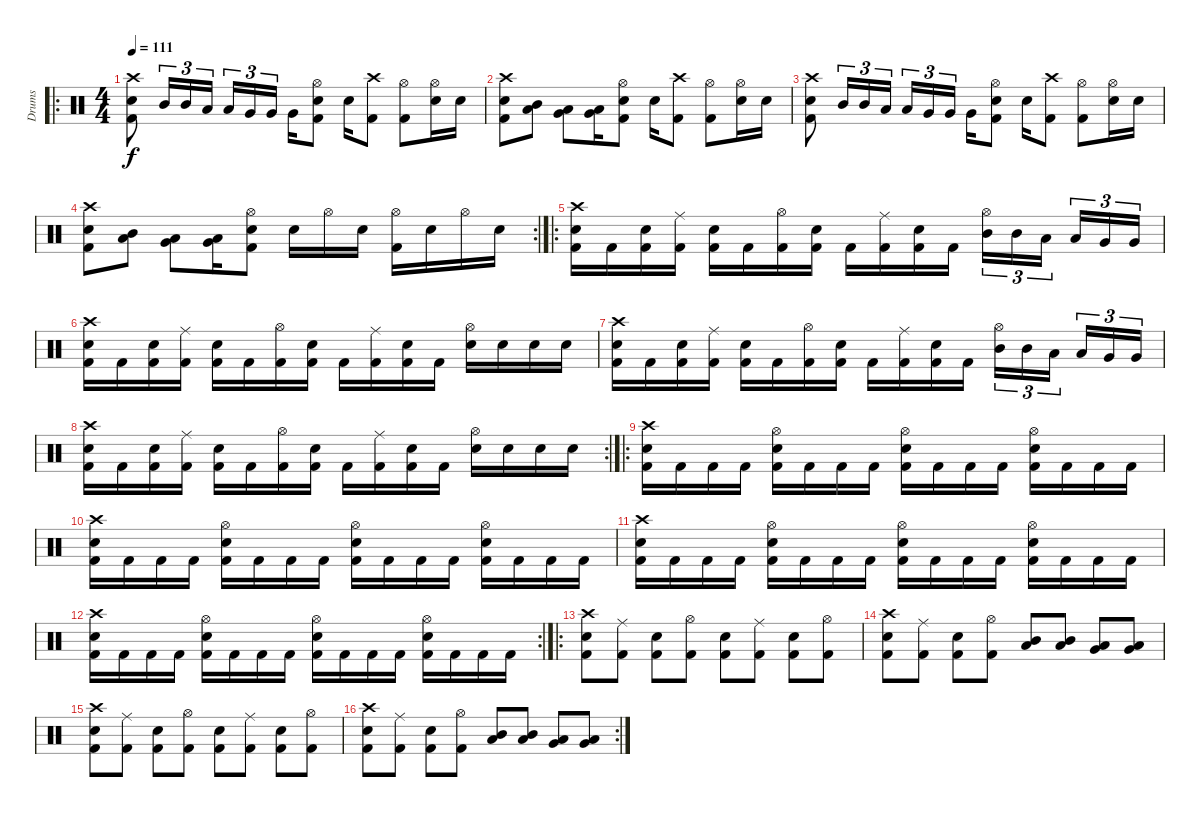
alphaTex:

\track ("Drums" "Drums") {instrument percussion}
\staff {score}
\articulation defaults
\ro
\ts (4 4)
\tempo 111
\clef neutral
\ks c
("Crash high (hit)" "Electric Snare (hit)" "Kick (hit) 2").8{dy f} "Mid Tom (hit)".16{tu (3 2)} "Mid Tom (hit)".16{tu (3 2)} "Low Tom (hit)".16{tu (3 2)} "Low Tom (hit)".16{tu (3 2)} "Very Low Tom (hit)".16{tu (3 2)} "Very Low Tom (hit)".16{tu (3 2)} "Very Low Tom (hit)".16 ("Hi-Hat (open)" "Electric Snare (hit)" "Kick (hit) 2").8 "Electric Snare (hit)".16 ("Crash high (hit)" "Kick (hit) 2").8 ("Hi-Hat (open)" "Kick (hit) 2").8 ("Hi-Hat (open)" "Electric Snare (hit)").16 "Electric Snare (hit)".16 |
("Crash high (hit)" "Electric Snare (hit)" "Kick (hit) 2").8 ("Low Tom (hit)" "Mid Tom (hit)").8 ("Very Low Tom (hit)" "Low Tom (hit)").8 ("Very Low Tom (hit)" "Low Floor Tom (hit)").16 ("Hi-Hat (open)" "Electric Snare (hit)" "Kick (hit) 2").8 "Electric Snare (hit)".16 ("Crash high (hit)" "Kick (hit) 2").8 ("Hi-Hat (open)" "Kick (hit) 2").8 ("Hi-Hat (open)" "Electric Snare (hit)").16 "Electric Snare (hit)".16 |
("Crash high (hit)" "Electric Snare (hit)" "Kick (hit) 2").8 "Mid Tom (hit)".16{tu (3 2)} "Mid Tom (hit)".16{tu (3 2)} "Low Tom (hit)".16{tu (3 2)} "Low Tom (hit)".16{tu (3 2)} "Very Low Tom (hit)".16{tu (3 2)} "Very Low Tom (hit)".16{tu (3 2)} "Very Low Tom (hit)".16 ("Hi-Hat (open)" "Electric Snare (hit)" "Kick (hit) 2").8 "Electric Snare (hit)".16 ("Crash high (hit)" "Kick (hit) 2").8 ("Hi-Hat (open)" "Kick (hit) 2").8 ("Hi-Hat (open)" "Electric Snare (hit)").16 "Electric Snare (hit)".16 |
\rc 2
("Crash high (hit)" "Electric Snare (hit)" "Kick (hit) 2").8 ("Low Tom (hit)" "Mid Tom (hit)").8 ("Very Low Tom (hit)" "Low Tom (hit)").8 ("Very Low Tom (hit)" "Low Floor Tom (hit)").16 ("Hi-Hat (open)" "Electric Snare (hit)" "Kick (hit) 2").8 "Electric Snare (hit)".16 "Hi-Hat (open)".16 "Electric Snare (hit)".16 ("Hi-Hat (open)" "Kick (hit) 2").16 "Electric Snare (hit)".16 "Hi-Hat (open)".16 "Electric Snare (hit)".16 |
\ro
("Crash high (hit)" "Electric Snare (hit)" "Kick (hit) 2").16 "Kick (hit) 2".16 ("Electric Snare (hit)" "Kick (hit) 2").16 ("Ride (middle)" "Kick (hit) 2").16 ("Electric Snare (hit)" "Kick (hit) 2").16 "Kick (hit) 2".16 ("Hi-Hat (open)" "Kick (hit) 2").16 ("Electric Snare (hit)" "Kick (hit) 2").16 "Kick (hit) 2".16 ("Ride (middle)" "Kick (hit) 2").16 ("Electric Snare (hit)" "Kick (hit) 2").16 "Kick (hit) 2".16 ("Hi-Hat (open)" "Mid Tom (hit)").16{tu (3 2)} "Mid Tom (hit)".16{tu (3 2)} "Low Tom (hit)".16{tu (3 2)} "Low Tom (hit)".16{tu (3 2)} "Very Low Tom (hit)".16{tu (3 2)} "Very Low Tom (hit)".16{tu (3 2)} |
("Crash high (hit)" "Electric Snare (hit)" "Kick (hit) 2").16 "Kick (hit) 2".16 ("Electric Snare (hit)" "Kick (hit) 2").16 ("Ride (middle)" "Kick (hit) 2").16 ("Electric Snare (hit)" "Kick (hit) 2").16 "Kick (hit) 2".16 ("Hi-Hat (open)" "Kick (hit) 2").16 ("Electric Snare (hit)" "Kick (hit) 2").16 "Kick (hit) 2".16 ("Ride (middle)" "Kick (hit) 2").16 ("Electric Snare (hit)" "Kick (hit) 2").16 "Kick (hit) 2".16 ("Hi-Hat (open)" "Electric Snare (hit)").16 "Electric Snare (hit)".16 "Electric Snare (hit)".16 "Electric Snare (hit)".16 |
("Crash high (hit)" "Electric Snare (hit)" "Kick (hit) 2").16 "Kick (hit) 2".16 ("Electric Snare (hit)" "Kick (hit) 2").16 ("Ride (middle)" "Kick (hit) 2").16 ("Electric Snare (hit)" "Kick (hit) 2").16 "Kick (hit) 2".16 ("Hi-Hat (open)" "Kick (hit) 2").16 ("Electric Snare (hit)" "Kick (hit) 2").16 "Kick (hit) 2".16 ("Ride (middle)" "Kick (hit) 2").16 ("Electric Snare (hit)" "Kick (hit) 2").16 "Kick (hit) 2".16 ("Hi-Hat (open)" "Mid Tom (hit)").16{tu (3 2)} "Mid Tom (hit)".16{tu (3 2)} "Low Tom (hit)".16{tu (3 2)} "Low Tom (hit)".16{tu (3 2)} "Very Low Tom (hit)".16{tu (3 2)} "Very Low Tom (hit)".16{tu (3 2)} |
\rc 2
("Crash high (hit)" "Electric Snare (hit)" "Kick (hit) 2").16 "Kick (hit) 2".16 ("Electric Snare (hit)" "Kick (hit) 2").16 ("Ride (middle)" "Kick (hit) 2").16 ("Electric Snare (hit)" "Kick (hit) 2").16 "Kick (hit) 2".16 ("Hi-Hat (open)" "Kick (hit) 2").16 ("Electric Snare (hit)" "Kick (hit) 2").16 "Kick (hit) 2".16 ("Ride (middle)" "Kick (hit) 2").16 ("Electric Snare (hit)" "Kick (hit) 2").16 "Kick (hit) 2".16 ("Hi-Hat (open)" "Electric Snare (hit)").16 "Electric Snare (hit)".16 "Electric Snare (hit)".16 "Electric Snare (hit)".16 |
\ro
("Crash high (hit)" "Electric Snare (hit)" "Kick (hit) 2").16 "Kick (hit) 2".16 "Kick (hit) 2".16 "Kick (hit) 2".16 ("Hi-Hat (open)" "Electric Snare (hit)" "Kick (hit) 2").16 "Kick (hit) 2".16 "Kick (hit) 2".16 "Kick (hit) 2".16 ("Hi-Hat (open)" "Electric Snare (hit)" "Kick (hit) 2").16 "Kick (hit) 2".16 "Kick (hit) 2".16 "Kick (hit) 2".16 ("Hi-Hat (open)" "Electric Snare (hit)" "Kick (hit) 2").16 "Kick (hit) 2".16 "Kick (hit) 2".16 "Kick (hit) 2".16 |
("Crash high (hit)" "Electric Snare (hit)" "Kick (hit) 2").16 "Kick (hit) 2".16 "Kick (hit) 2".16 "Kick (hit) 2".16 ("Hi-Hat (open)" "Electric Snare (hit)" "Kick (hit) 2").16 "Kick (hit) 2".16 "Kick (hit) 2".16 "Kick (hit) 2".16 ("Hi-Hat (open)" "Electric Snare (hit)" "Kick (hit) 2").16 "Kick (hit) 2".16 "Kick (hit) 2".16 "Kick (hit) 2".16 ("Hi-Hat (open)" "Electric Snare (hit)" "Kick (hit) 2").16 "Kick (hit) 2".16 "Kick (hit) 2".16 "Kick (hit) 2".16 |
("Crash high (hit)" "Electric Snare (hit)" "Kick (hit) 2").16 "Kick (hit) 2".16 "Kick (hit) 2".16 "Kick (hit) 2".16 ("Hi-Hat (open)" "Electric Snare (hit)" "Kick (hit) 2").16 "Kick (hit) 2".16 "Kick (hit) 2".16 "Kick (hit) 2".16 ("Hi-Hat (open)" "Electric Snare (hit)" "Kick (hit) 2").16 "Kick (hit) 2".16 "Kick (hit) 2".16 "Kick (hit) 2".16 ("Hi-Hat (open)" "Electric Snare (hit)" "Kick (hit) 2").16 "Kick (hit) 2".16 "Kick (hit) 2".16 "Kick (hit) 2".16 |
\rc 2
("Crash high (hit)" "Electric Snare (hit)" "Kick (hit) 2").16 "Kick (hit) 2".16 "Kick (hit) 2".16 "Kick (hit) 2".16 ("Hi-Hat (open)" "Electric Snare (hit)" "Kick (hit) 2").16 "Kick (hit) 2".16 "Kick (hit) 2".16 "Kick (hit) 2".16 ("Hi-Hat (open)" "Electric Snare (hit)" "Kick (hit) 2").16 "Kick (hit) 2".16 "Kick (hit) 2".16 "Kick (hit) 2".16 ("Hi-Hat (open)" "Electric Snare (hit)" "Kick (hit) 2").16 "Kick (hit) 2".16 "Kick (hit) 2".16 "Kick (hit) 2".16 |
\ro
("Crash high (hit)" "Electric Snare (hit)" "Kick (hit) 2").8 ("Ride (middle)" "Kick (hit) 2").8 ("Electric Snare (hit)" "Kick (hit) 2").8 ("Hi-Hat (open)" "Kick (hit) 2").8 ("Electric Snare (hit)" "Kick (hit) 2").8 ("Ride (middle)" "Kick (hit) 2").8 ("Electric Snare (hit)" "Kick (hit) 2").8 ("Hi-Hat (open)" "Kick (hit) 2").8 |
("Crash high (hit)" "Electric Snare (hit)" "Kick (hit) 2").8 ("Ride (middle)" "Kick (hit) 2").8 ("Electric Snare (hit)" "Kick (hit) 2").8 ("Hi-Hat (open)" "Kick (hit) 2").8 ("Low Tom (hit)" "Mid Tom (hit)").8 ("Low Tom (hit)" "Mid Tom (hit)").8 ("Very Low Tom (hit)" "Low Floor Tom (hit)").8 ("Very Low Tom (hit)" "Low Floor Tom (hit)").8 |
("Crash high (hit)" "Electric Snare (hit)" "Kick (hit) 2").8 ("Ride (middle)" "Kick (hit) 2").8 ("Electric Snare (hit)" "Kick (hit) 2").8 ("Hi-Hat (open)" "Kick (hit) 2").8 ("Electric Snare (hit)" "Kick (hit) 2").8 ("Ride (middle)" "Kick (hit) 2").8 ("Electric Snare (hit)" "Kick (hit) 2").8 ("Hi-Hat (open)" "Kick (hit) 2").8 |
\rc 2
("Crash high (hit)" "Electric Snare (hit)" "Kick (hit) 2").8 ("Ride (middle)" "Kick (hit) 2").8 ("Electric Snare (hit)" "Kick (hit) 2").8 ("Hi-Hat (open)" "Kick (hit) 2").8 ("Low Tom (hit)" "Mid Tom (hit)").8 ("Low Tom (hit)" "Mid Tom (hit)").8 ("Very Low Tom (hit)" "Low Floor Tom (hit)").8 ("Very Low Tom (hit)" "Low Floor Tom (hit)").8
